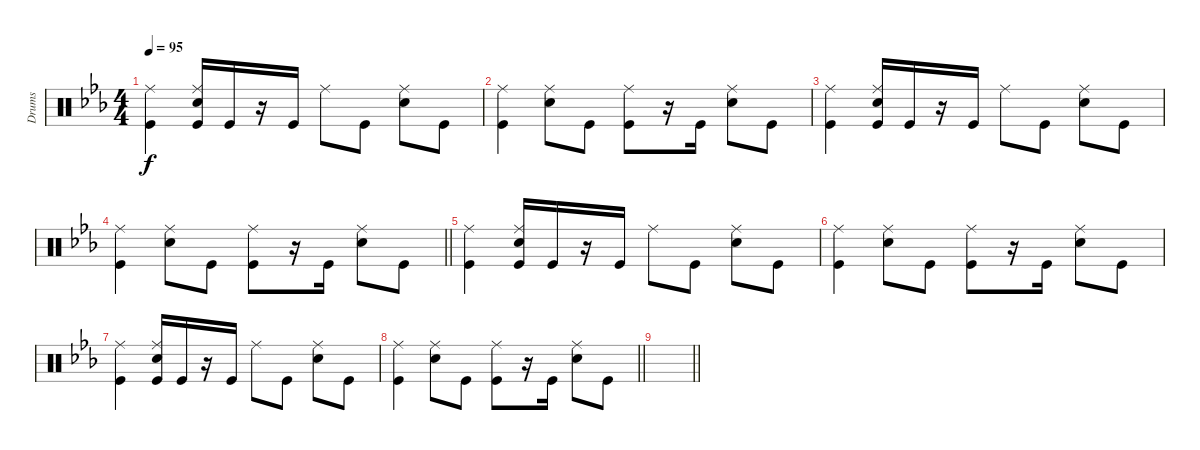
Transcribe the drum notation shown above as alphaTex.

\track ("Drums" "Drums") {instrument percussion}
\staff {score}
\articulation defaults
\ts (4 4)
\tempo 95
\clef neutral
\ks eb
("Kick (hit)" "Ride (middle)").4{dy f} ("Kick (hit)" "Ride (middle)" "Snare (hit) 2").16 "Kick (hit)".16 r.16 "Kick (hit)".16 "Ride (middle)".8 "Kick (hit)".8 ("Ride (middle)" "Snare (hit) 2").8 "Kick (hit)".8 |
("Kick (hit)" "Ride (middle)").4 ("Ride (middle)" "Snare (hit) 2").8 "Kick (hit)".8 ("Kick (hit)" "Ride (middle)").8 r.16 "Kick (hit)".16 ("Ride (middle)" "Snare (hit) 2").8 "Kick (hit)".8 |
("Kick (hit)" "Ride (middle)").4 ("Kick (hit)" "Ride (middle)" "Snare (hit) 2").16 "Kick (hit)".16 r.16 "Kick (hit)".16 "Ride (middle)".8 "Kick (hit)".8 ("Ride (middle)" "Snare (hit) 2").8 "Kick (hit)".8 |
\barLineRight lightlight
("Kick (hit)" "Ride (middle)").4 ("Ride (middle)" "Snare (hit) 2").8 "Kick (hit)".8 ("Kick (hit)" "Ride (middle)").8 r.16 "Kick (hit)".16 ("Ride (middle)" "Snare (hit) 2").8 "Kick (hit)".8 |
("Kick (hit)" "Ride (middle)").4 ("Kick (hit)" "Ride (middle)" "Snare (hit) 2").16 "Kick (hit)".16 r.16 "Kick (hit)".16 "Ride (middle)".8 "Kick (hit)".8 ("Ride (middle)" "Snare (hit) 2").8 "Kick (hit)".8 |
("Kick (hit)" "Ride (middle)").4 ("Ride (middle)" "Snare (hit) 2").8 "Kick (hit)".8 ("Kick (hit)" "Ride (middle)").8 r.16 "Kick (hit)".16 ("Ride (middle)" "Snare (hit) 2").8 "Kick (hit)".8 |
("Kick (hit)" "Ride (middle)").4 ("Kick (hit)" "Ride (middle)" "Snare (hit) 2").16 "Kick (hit)".16 r.16 "Kick (hit)".16 "Ride (middle)".8 "Kick (hit)".8 ("Ride (middle)" "Snare (hit) 2").8 "Kick (hit)".8 |
\barLineRight lightlight
("Kick (hit)" "Ride (middle)").4 ("Ride (middle)" "Snare (hit) 2").8 "Kick (hit)".8 ("Kick (hit)" "Ride (middle)").8 r.16 "Kick (hit)".16 ("Ride (middle)" "Snare (hit) 2").8 "Kick (hit)".8 |
\barLineRight lightlight
